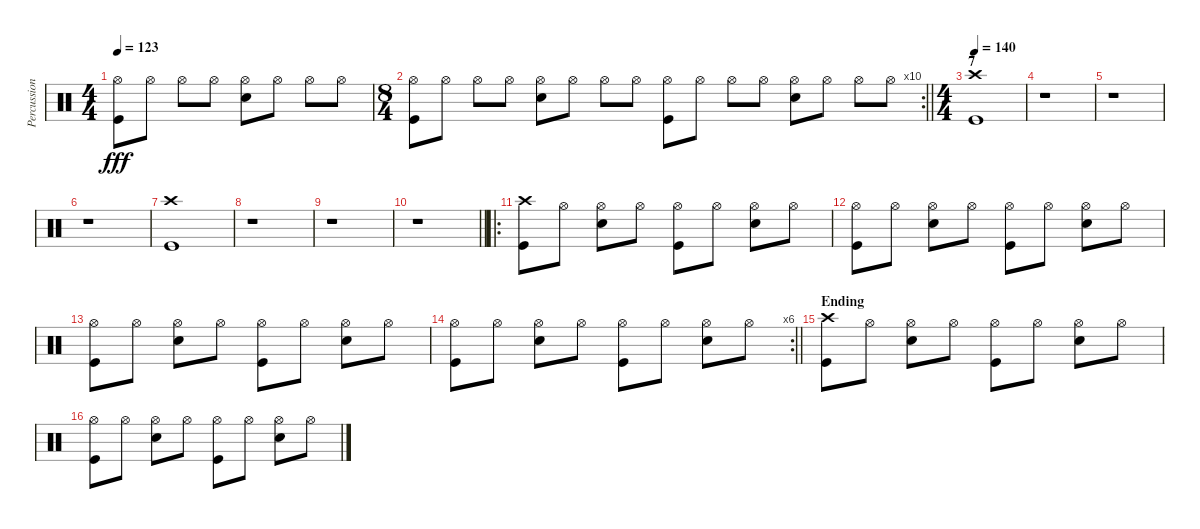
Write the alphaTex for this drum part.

\track ("Percussion" "Percussion") {instrument percussion}
\staff {score}
\articulation defaults
\ts (4 4)
\tempo 123
\clef neutral
\ks c
("Hi-Hat (open)" "Kick (hit)").8{dy fff} "Hi-Hat (open)".8 "Hi-Hat (open)".8 "Hi-Hat (open)".8 ("Hi-Hat (open)" "Snare (hit) 2").8 "Hi-Hat (open)".8 "Hi-Hat (open)".8 "Hi-Hat (open)".8 |
\rc 10
\ts (8 4)
\barLineRight lightlight
("Hi-Hat (open)" "Kick (hit)").8 "Hi-Hat (open)".8 "Hi-Hat (open)".8 "Hi-Hat (open)".8 ("Hi-Hat (open)" "Snare (hit) 2").8 "Hi-Hat (open)".8 "Hi-Hat (open)".8 "Hi-Hat (open)".8 ("Hi-Hat (open)" "Kick (hit)").8 "Hi-Hat (open)".8 "Hi-Hat (open)".8 "Hi-Hat (open)".8 ("Hi-Hat (open)" "Snare (hit) 2").8 "Hi-Hat (open)".8 "Hi-Hat (open)".8 "Hi-Hat (open)".8 |
\ts (4 4)
\section ("" "7")
\tempo 140
("Crash high (hit)" "Kick (hit)").1 |
r.1 |
r.1 |
r.1 |
("Crash high (hit)" "Kick (hit)").1 |
r.1 |
r.1 |
\barLineRight lightlight
r.1 |
\ro
("Crash high (hit)" "Kick (hit)").8 "Hi-Hat (open)".8 ("Hi-Hat (open)" "Snare (hit) 2").8 "Hi-Hat (open)".8 ("Hi-Hat (open)" "Kick (hit)").8 "Hi-Hat (open)".8 ("Hi-Hat (open)" "Snare (hit) 2").8 "Hi-Hat (open)".8 |
("Hi-Hat (open)" "Kick (hit)").8 "Hi-Hat (open)".8 ("Hi-Hat (open)" "Snare (hit) 2").8 "Hi-Hat (open)".8 ("Hi-Hat (open)" "Kick (hit)").8 "Hi-Hat (open)".8 ("Hi-Hat (open)" "Snare (hit) 2").8 "Hi-Hat (open)".8 |
("Hi-Hat (open)" "Kick (hit)").8 "Hi-Hat (open)".8 ("Hi-Hat (open)" "Snare (hit) 2").8 "Hi-Hat (open)".8 ("Hi-Hat (open)" "Kick (hit)").8 "Hi-Hat (open)".8 ("Hi-Hat (open)" "Snare (hit) 2").8 "Hi-Hat (open)".8 |
\rc 6
\barLineRight lightlight
("Hi-Hat (open)" "Kick (hit)").8 "Hi-Hat (open)".8 ("Hi-Hat (open)" "Snare (hit) 2").8 "Hi-Hat (open)".8 ("Hi-Hat (open)" "Kick (hit)").8 "Hi-Hat (open)".8 ("Hi-Hat (open)" "Snare (hit) 2").8 "Hi-Hat (open)".8 |
\section ("" "Ending")
("Crash high (hit)" "Kick (hit)").8 "Hi-Hat (open)".8 ("Hi-Hat (open)" "Snare (hit) 2").8 "Hi-Hat (open)".8 ("Hi-Hat (open)" "Kick (hit)").8 "Hi-Hat (open)".8 ("Hi-Hat (open)" "Snare (hit) 2").8 "Hi-Hat (open)".8 |
("Hi-Hat (open)" "Kick (hit)").8 "Hi-Hat (open)".8 ("Hi-Hat (open)" "Snare (hit) 2").8 "Hi-Hat (open)".8 ("Hi-Hat (open)" "Kick (hit)").8 "Hi-Hat (open)".8 ("Hi-Hat (open)" "Snare (hit) 2").8 "Hi-Hat (open)".8
